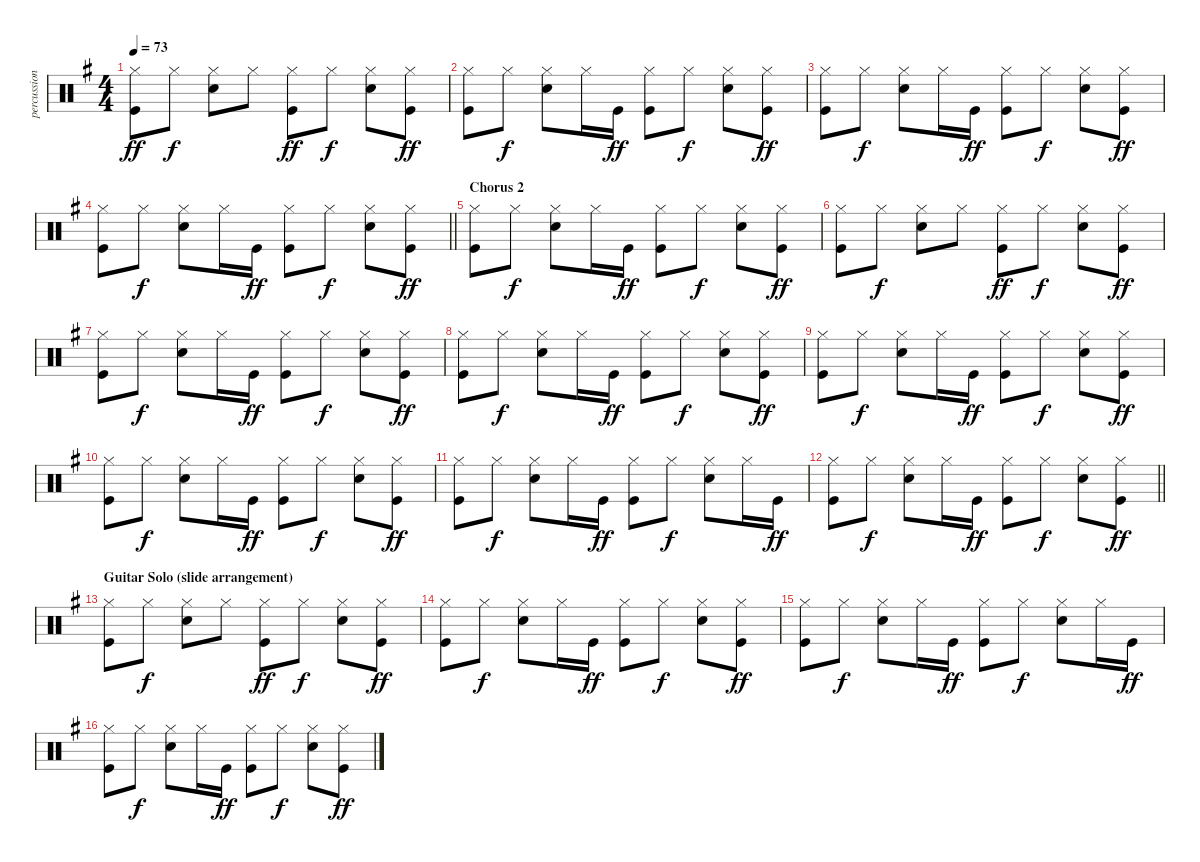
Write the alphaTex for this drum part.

\track ("percussion" "percussion") {instrument percussion}
\staff {score}
\articulation defaults
\ts (4 4)
\tempo 73
\clef neutral
\ks g
("Hi-Hat (closed)" "Kick (hit)").8{dy ff} "Hi-Hat (closed)".8{dy f} ("Electric Snare (hit)" "Hi-Hat (closed)").8 "Hi-Hat (closed)".8 ("Hi-Hat (closed)" "Kick (hit)").8{dy ff} "Hi-Hat (closed)".8{dy f} ("Electric Snare (hit)" "Hi-Hat (closed)").8 ("Hi-Hat (closed)" "Kick (hit)").8{dy ff} |
("Hi-Hat (closed)" "Kick (hit)").8 "Hi-Hat (closed)".8{dy f} ("Electric Snare (hit)" "Hi-Hat (closed)").8 "Hi-Hat (closed)".16 "Kick (hit)".16{dy ff} ("Hi-Hat (closed)" "Kick (hit)").8 "Hi-Hat (closed)".8{dy f} ("Electric Snare (hit)" "Hi-Hat (closed)").8 ("Hi-Hat (closed)" "Kick (hit)").8{dy ff} |
("Hi-Hat (closed)" "Kick (hit)").8 "Hi-Hat (closed)".8{dy f} ("Electric Snare (hit)" "Hi-Hat (closed)").8 "Hi-Hat (closed)".16 "Kick (hit)".16{dy ff} ("Hi-Hat (closed)" "Kick (hit)").8 "Hi-Hat (closed)".8{dy f} ("Electric Snare (hit)" "Hi-Hat (closed)").8 ("Hi-Hat (closed)" "Kick (hit)").8{dy ff} |
\barLineRight lightlight
("Hi-Hat (closed)" "Kick (hit)").8 "Hi-Hat (closed)".8{dy f} ("Electric Snare (hit)" "Hi-Hat (closed)").8 "Hi-Hat (closed)".16 "Kick (hit)".16{dy ff} ("Hi-Hat (closed)" "Kick (hit)").8 "Hi-Hat (closed)".8{dy f} ("Electric Snare (hit)" "Hi-Hat (closed)").8 ("Hi-Hat (closed)" "Kick (hit)").8{dy ff} |
\section ("" "Chorus 2")
("Hi-Hat (closed)" "Kick (hit)").8 "Hi-Hat (closed)".8{dy f} ("Electric Snare (hit)" "Hi-Hat (closed)").8 "Hi-Hat (closed)".16 "Kick (hit)".16{dy ff} ("Hi-Hat (closed)" "Kick (hit)").8 "Hi-Hat (closed)".8{dy f} ("Electric Snare (hit)" "Hi-Hat (closed)").8 ("Hi-Hat (closed)" "Kick (hit)").8{dy ff} |
("Hi-Hat (closed)" "Kick (hit)").8 "Hi-Hat (closed)".8{dy f} ("Electric Snare (hit)" "Hi-Hat (closed)").8 "Hi-Hat (closed)".8 ("Hi-Hat (closed)" "Kick (hit)").8{dy ff} "Hi-Hat (closed)".8{dy f} ("Electric Snare (hit)" "Hi-Hat (closed)").8 ("Hi-Hat (closed)" "Kick (hit)").8{dy ff} |
("Hi-Hat (closed)" "Kick (hit)").8 "Hi-Hat (closed)".8{dy f} ("Electric Snare (hit)" "Hi-Hat (closed)").8 "Hi-Hat (closed)".16 "Kick (hit)".16{dy ff} ("Hi-Hat (closed)" "Kick (hit)").8 "Hi-Hat (closed)".8{dy f} ("Electric Snare (hit)" "Hi-Hat (closed)").8 ("Hi-Hat (closed)" "Kick (hit)").8{dy ff} |
("Hi-Hat (closed)" "Kick (hit)").8 "Hi-Hat (closed)".8{dy f} ("Electric Snare (hit)" "Hi-Hat (closed)").8 "Hi-Hat (closed)".16 "Kick (hit)".16{dy ff} ("Hi-Hat (closed)" "Kick (hit)").8 "Hi-Hat (closed)".8{dy f} ("Electric Snare (hit)" "Hi-Hat (closed)").8 ("Hi-Hat (closed)" "Kick (hit)").8{dy ff} |
("Hi-Hat (closed)" "Kick (hit)").8 "Hi-Hat (closed)".8{dy f} ("Electric Snare (hit)" "Hi-Hat (closed)").8 "Hi-Hat (closed)".16 "Kick (hit)".16{dy ff} ("Hi-Hat (closed)" "Kick (hit)").8 "Hi-Hat (closed)".8{dy f} ("Electric Snare (hit)" "Hi-Hat (closed)").8 ("Hi-Hat (closed)" "Kick (hit)").8{dy ff} |
("Hi-Hat (closed)" "Kick (hit)").8 "Hi-Hat (closed)".8{dy f} ("Electric Snare (hit)" "Hi-Hat (closed)").8 "Hi-Hat (closed)".16 "Kick (hit)".16{dy ff} ("Hi-Hat (closed)" "Kick (hit)").8 "Hi-Hat (closed)".8{dy f} ("Electric Snare (hit)" "Hi-Hat (closed)").8 ("Hi-Hat (closed)" "Kick (hit)").8{dy ff} |
("Hi-Hat (closed)" "Kick (hit)").8 "Hi-Hat (closed)".8{dy f} ("Electric Snare (hit)" "Hi-Hat (closed)").8 "Hi-Hat (closed)".16 "Kick (hit)".16{dy ff} ("Hi-Hat (closed)" "Kick (hit)").8 "Hi-Hat (closed)".8{dy f} ("Electric Snare (hit)" "Hi-Hat (closed)").8 "Hi-Hat (closed)".16 "Kick (hit)".16{dy ff} |
\barLineRight lightlight
("Hi-Hat (closed)" "Kick (hit)").8 "Hi-Hat (closed)".8{dy f} ("Electric Snare (hit)" "Hi-Hat (closed)").8 "Hi-Hat (closed)".16 "Kick (hit)".16{dy ff} ("Hi-Hat (closed)" "Kick (hit)").8 "Hi-Hat (closed)".8{dy f} ("Electric Snare (hit)" "Hi-Hat (closed)").8 ("Hi-Hat (closed)" "Kick (hit)").8{dy ff} |
\section ("" "Guitar Solo (slide arrangement)")
("Hi-Hat (closed)" "Kick (hit)").8 "Hi-Hat (closed)".8{dy f} ("Electric Snare (hit)" "Hi-Hat (closed)").8 "Hi-Hat (closed)".8 ("Hi-Hat (closed)" "Kick (hit)").8{dy ff} "Hi-Hat (closed)".8{dy f} ("Electric Snare (hit)" "Hi-Hat (closed)").8 ("Hi-Hat (closed)" "Kick (hit)").8{dy ff} |
("Hi-Hat (closed)" "Kick (hit)").8 "Hi-Hat (closed)".8{dy f} ("Electric Snare (hit)" "Hi-Hat (closed)").8 "Hi-Hat (closed)".16 "Kick (hit)".16{dy ff} ("Hi-Hat (closed)" "Kick (hit)").8 "Hi-Hat (closed)".8{dy f} ("Electric Snare (hit)" "Hi-Hat (closed)").8 ("Hi-Hat (closed)" "Kick (hit)").8{dy ff} |
("Hi-Hat (closed)" "Kick (hit)").8 "Hi-Hat (closed)".8{dy f} ("Electric Snare (hit)" "Hi-Hat (closed)").8 "Hi-Hat (closed)".16 "Kick (hit)".16{dy ff} ("Hi-Hat (closed)" "Kick (hit)").8 "Hi-Hat (closed)".8{dy f} ("Electric Snare (hit)" "Hi-Hat (closed)").8 "Hi-Hat (closed)".16 "Kick (hit)".16{dy ff} |
("Hi-Hat (closed)" "Kick (hit)").8 "Hi-Hat (closed)".8{dy f} ("Electric Snare (hit)" "Hi-Hat (closed)").8 "Hi-Hat (closed)".16 "Kick (hit)".16{dy ff} ("Hi-Hat (closed)" "Kick (hit)").8 "Hi-Hat (closed)".8{dy f} ("Electric Snare (hit)" "Hi-Hat (closed)").8 ("Hi-Hat (closed)" "Kick (hit)").8{dy ff}
